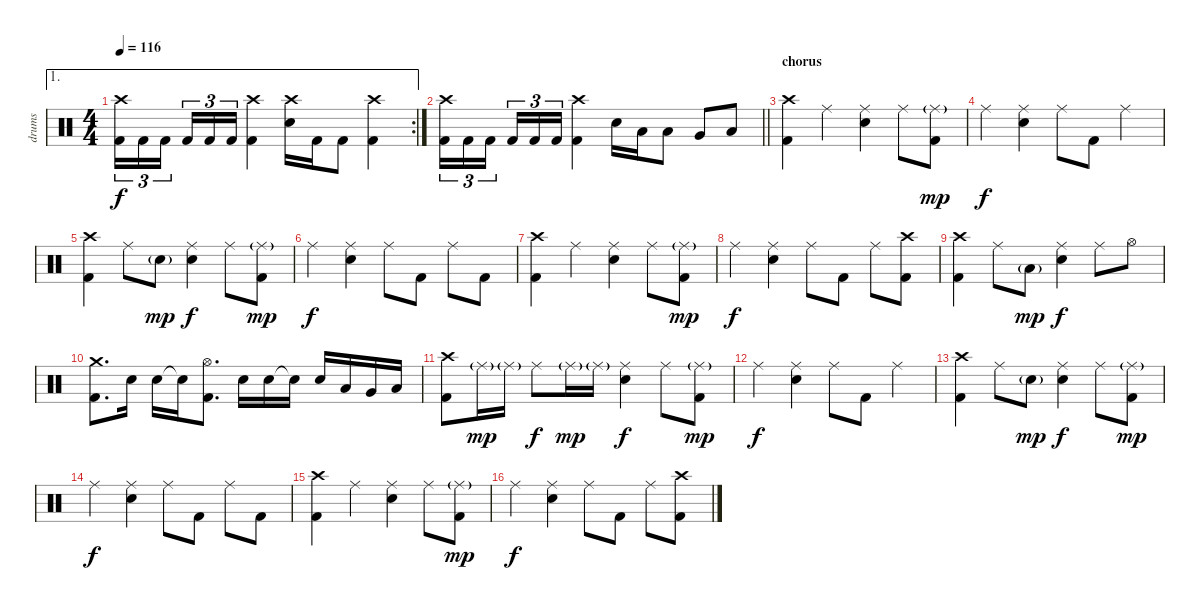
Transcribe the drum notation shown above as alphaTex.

\track ("drums" "drums") {instrument percussion}
\staff {score}
\articulation defaults
\ae 1
\rc 2
\ts (4 4)
\tempo 116
\clef neutral
\ks c
("Crash high (hit)" "Kick (hit) 2").16{tu (3 2) dy f} "Kick (hit) 2".16{tu (3 2)} "Kick (hit) 2".16{tu (3 2) beam splitsecondary} "Kick (hit) 2".16{tu (3 2)} "Kick (hit) 2".16{tu (3 2)} "Kick (hit) 2".16{tu (3 2)} ("Crash high (hit)" "Kick (hit) 2").4 ("Crash high (hit)" "Snare (hit) 2").16 "Kick (hit) 2".16 "Kick (hit) 2".8 ("Crash high (hit)" "Kick (hit) 2").4 |
\barLineRight lightlight
("Crash high (hit)" "Kick (hit) 2").16{tu (3 2)} "Kick (hit) 2".16{tu (3 2)} "Kick (hit) 2".16{tu (3 2) beam splitsecondary} "Kick (hit) 2".16{tu (3 2)} "Kick (hit) 2".16{tu (3 2)} "Kick (hit) 2".16{tu (3 2)} ("Crash high (hit)" "Kick (hit) 2").4 "Snare (hit) 2".16 "Low Tom (hit)".16 "Low Tom (hit)".8 "Very Low Tom (hit)".8 "Low Floor Tom (hit)".8 |
\section ("" "chorus")
("Crash high (hit)" "Kick (hit) 2").4 "Ride (middle)".4 ("Ride (middle)" "Snare (hit) 2").4 "Ride (middle)".8 ("Ride (middle)"{g} "Kick (hit) 2").8{dy mp} |
"Ride (middle)".4{dy f} ("Ride (middle)" "Snare (hit) 2").4 "Ride (middle)".8 "Kick (hit) 2".8 "Ride (middle)".4 |
("Crash high (hit)" "Kick (hit) 2").4 "Ride (middle)".8 "Snare (hit) 2"{g}.8{dy mp} ("Ride (middle)" "Snare (hit) 2").4{dy f} "Ride (middle)".8 ("Ride (middle)"{g} "Kick (hit) 2").8{dy mp} |
"Ride (middle)".4{dy f} ("Ride (middle)" "Snare (hit) 2").4 "Ride (middle)".8 "Kick (hit) 2".8 "Ride (middle)".8 "Kick (hit) 2".8 |
("Crash high (hit)" "Kick (hit) 2").4 "Ride (middle)".4 ("Ride (middle)" "Snare (hit) 2").4 "Ride (middle)".8 ("Ride (middle)"{g} "Kick (hit) 2").8{dy mp} |
"Ride (middle)".4{dy f} ("Ride (middle)" "Snare (hit) 2").4 "Ride (middle)".8 "Kick (hit) 2".8 "Ride (middle)".8 ("Crash high (hit)" "Kick (hit) 2").8 |
("Crash high (hit)" "Kick (hit) 2").4 "Ride (middle)".8 "Low Tom (hit)"{g}.8{dy mp} ("Ride (middle)" "Snare (hit) 2").4{dy f} "Ride (middle)".8 "Hi-Hat (open)".8 |
("Crash medium (hit)" "Kick (hit) 2").8{d} "Snare (hit) 2".16 "Snare (hit) 2".16 "Snare (hit)"{t}.16 ("Hi-Hat (open)" "Kick (hit) 2").8{d} "Snare (hit) 2".16 "Snare (hit) 2".16 "Snare (hit)"{t}.16 "Snare (hit) 2".16 "Low Tom (hit)".16 "Very Low Tom (hit)".16 "Low Floor Tom (hit)".16 |
("Crash high (hit)" "Kick (hit) 2").8 "Ride (middle)"{g}.16{dy mp} "Ride (middle)"{g}.16 "Ride (middle)".8{dy f} "Ride (middle)"{g}.16{dy mp} "Ride (middle)"{g}.16 ("Ride (middle)" "Snare (hit) 2").4{dy f} "Ride (middle)".8 ("Ride (middle)"{g} "Kick (hit) 2").8{dy mp} |
"Ride (middle)".4{dy f} ("Ride (middle)" "Snare (hit) 2").4 "Ride (middle)".8 "Kick (hit) 2".8 "Ride (middle)".4 |
("Crash high (hit)" "Kick (hit) 2").4 "Ride (middle)".8 "Snare (hit) 2"{g}.8{dy mp} ("Ride (middle)" "Snare (hit) 2").4{dy f} "Ride (middle)".8 ("Ride (middle)"{g} "Kick (hit) 2").8{dy mp} |
"Ride (middle)".4{dy f} ("Ride (middle)" "Snare (hit) 2").4 "Ride (middle)".8 "Kick (hit) 2".8 "Ride (middle)".8 "Kick (hit) 2".8 |
("Crash high (hit)" "Kick (hit) 2").4 "Ride (middle)".4 ("Ride (middle)" "Snare (hit) 2").4 "Ride (middle)".8 ("Ride (middle)"{g} "Kick (hit) 2").8{dy mp} |
"Ride (middle)".4{dy f} ("Ride (middle)" "Snare (hit) 2").4 "Ride (middle)".8 "Kick (hit) 2".8 "Ride (middle)".8 ("Crash high (hit)" "Kick (hit) 2").8
